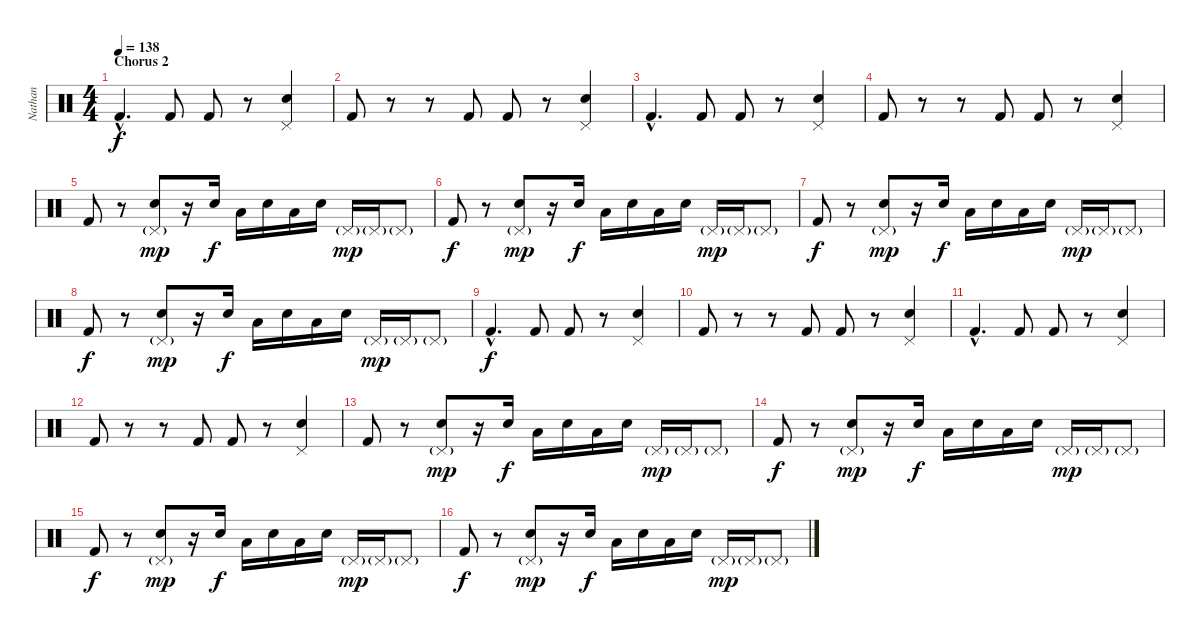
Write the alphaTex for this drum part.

\track ("Nathan" "Nathan") {instrument percussion}
\staff {score}
\articulation defaults
\ts (4 4)
\section ("" "Chorus 2")
\tempo 138
\clef neutral
\ks c "Kick (hit) 2"{hac}.4{d dy f} "Kick (hit) 2".8 "Kick (hit) 2".8
r.8 ("Pedal Hi-Hat (hit)" "Electric Snare (hit)").4 |
"Kick (hit) 2".8 r.8 r.8 "Kick (hit) 2".8 "Kick (hit) 2".8 r.8 ("Pedal Hi-Hat (hit)" "Electric Snare (hit)").4 |
"Kick (hit) 2"{hac}.4{d} "Kick (hit) 2".8 "Kick (hit) 2".8 r.8 ("Pedal Hi-Hat (hit)" "Electric Snare (hit)").4 |
"Kick (hit) 2".8 r.8 r.8 "Kick (hit) 2".8 "Kick (hit) 2".8 r.8 ("Pedal Hi-Hat (hit)" "Electric Snare (hit)").4 |
"Kick (hit) 2".8 r.8 ("Pedal Hi-Hat (hit)"{g} "Electric Snare (hit)").8{dy mp} r.16 "Electric Snare (hit)".16{dy f} "Low Tom (hit)".16 "Electric Snare (hit)".16 "Low Tom (hit)".16 "Electric Snare (hit)".16 "Pedal Hi-Hat (hit)"{g}.16{dy mp} "Pedal Hi-Hat (hit)"{g}.16 "Pedal Hi-Hat (hit)"{g}.8 |
"Kick (hit) 2".8{dy f} r.8 ("Pedal Hi-Hat (hit)"{g} "Electric Snare (hit)").8{dy mp} r.16 "Electric Snare (hit)".16{dy f} "Low Tom (hit)".16 "Electric Snare (hit)".16 "Low Tom (hit)".16 "Electric Snare (hit)".16 "Pedal Hi-Hat (hit)"{g}.16{dy mp} "Pedal Hi-Hat (hit)"{g}.16 "Pedal Hi-Hat (hit)"{g}.8 |
"Kick (hit) 2".8{dy f} r.8 ("Pedal Hi-Hat (hit)"{g} "Electric Snare (hit)").8{dy mp} r.16 "Electric Snare (hit)".16{dy f} "Low Tom (hit)".16 "Electric Snare (hit)".16 "Low Tom (hit)".16 "Electric Snare (hit)".16 "Pedal Hi-Hat (hit)"{g}.16{dy mp} "Pedal Hi-Hat (hit)"{g}.16 "Pedal Hi-Hat (hit)"{g}.8 |
"Kick (hit) 2".8{dy f} r.8 ("Pedal Hi-Hat (hit)"{g} "Electric Snare (hit)").8{dy mp} r.16 "Electric Snare (hit)".16{dy f} "Low Tom (hit)".16 "Electric Snare (hit)".16 "Low Tom (hit)".16 "Electric Snare (hit)".16 "Pedal Hi-Hat (hit)"{g}.16{dy mp} "Pedal Hi-Hat (hit)"{g}.16 "Pedal Hi-Hat (hit)"{g}.8 |
"Kick (hit) 2"{hac}.4{d dy f} "Kick (hit) 2".8 "Kick (hit) 2".8 r.8 ("Pedal Hi-Hat (hit)" "Electric Snare (hit)").4 |
"Kick (hit) 2".8 r.8 r.8 "Kick (hit) 2".8 "Kick (hit) 2".8 r.8 ("Pedal Hi-Hat (hit)" "Electric Snare (hit)").4 |
"Kick (hit) 2"{hac}.4{d} "Kick (hit) 2".8 "Kick (hit) 2".8 r.8 ("Pedal Hi-Hat (hit)" "Electric Snare (hit)").4 |
"Kick (hit) 2".8 r.8 r.8 "Kick (hit) 2".8 "Kick (hit) 2".8 r.8 ("Pedal Hi-Hat (hit)" "Electric Snare (hit)").4 |
"Kick (hit) 2".8 r.8 ("Pedal Hi-Hat (hit)"{g} "Electric Snare (hit)").8{dy mp} r.16 "Electric Snare (hit)".16{dy f} "Low Tom (hit)".16 "Electric Snare (hit)".16 "Low Tom (hit)".16 "Electric Snare (hit)".16 "Pedal Hi-Hat (hit)"{g}.16{dy mp} "Pedal Hi-Hat (hit)"{g}.16 "Pedal Hi-Hat (hit)"{g}.8 |
"Kick (hit) 2".8{dy f} r.8 ("Pedal Hi-Hat (hit)"{g} "Electric Snare (hit)").8{dy mp} r.16 "Electric Snare (hit)".16{dy f} "Low Tom (hit)".16 "Electric Snare (hit)".16 "Low Tom (hit)".16 "Electric Snare (hit)".16 "Pedal Hi-Hat (hit)"{g}.16{dy mp} "Pedal Hi-Hat (hit)"{g}.16 "Pedal Hi-Hat (hit)"{g}.8 |
"Kick (hit) 2".8{dy f} r.8 ("Pedal Hi-Hat (hit)"{g} "Electric Snare (hit)").8{dy mp} r.16 "Electric Snare (hit)".16{dy f} "Low Tom (hit)".16 "Electric Snare (hit)".16 "Low Tom (hit)".16 "Electric Snare (hit)".16 "Pedal Hi-Hat (hit)"{g}.16{dy mp} "Pedal Hi-Hat (hit)"{g}.16 "Pedal Hi-Hat (hit)"{g}.8 |
"Kick (hit) 2".8{dy f} r.8 ("Pedal Hi-Hat (hit)"{g} "Electric Snare (hit)").8{dy mp} r.16 "Electric Snare (hit)".16{dy f} "Low Tom (hit)".16 "Electric Snare (hit)".16 "Low Tom (hit)".16 "Electric Snare (hit)".16 "Pedal Hi-Hat (hit)"{g}.16{dy mp} "Pedal Hi-Hat (hit)"{g}.16 "Pedal Hi-Hat (hit)"{g}.8
